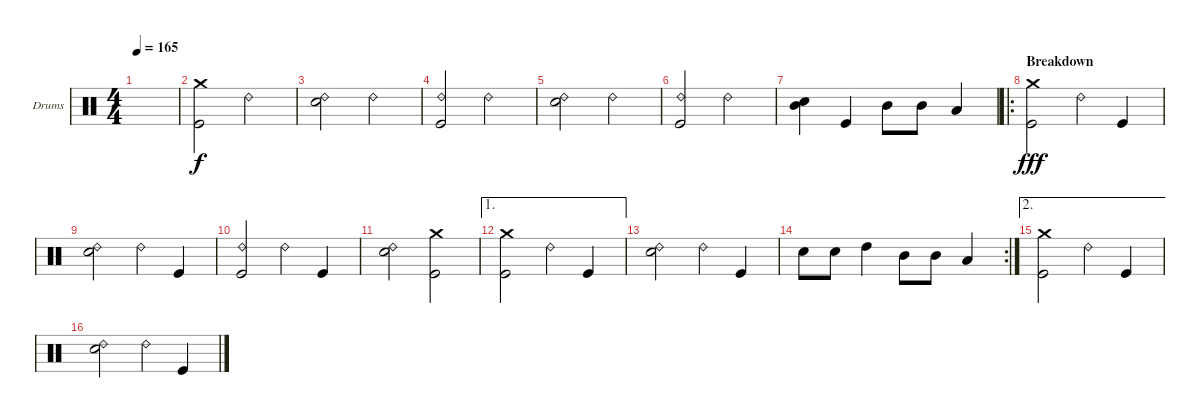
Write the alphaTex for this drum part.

\defaultSystemsLayout 4
\bracketExtendMode groupsimilarinstruments
\firstSystemTrackNameOrientation horizontal
\otherSystemsTrackNameOrientation horizontal
\track ("Drums" "Drums") {instrument percussion}
\staff {score}
\articulation defaults
\ts (4 4)
\tempo 165
\clef neutral
\ks c
|
("Crash medium (hit)" "Kick (hit)").2{dy f} "Ride (bell) 2".2 |
("Ride (bell) 2" "Snare (hit) 2").2 "Ride (bell) 2".2 |
("Ride (bell) 2" "Kick (hit)").2 "Ride (bell) 2".2 |
("Ride (bell) 2" "Snare (hit) 2").2 "Ride (bell) 2".2 |
("Ride (bell) 2" "Kick (hit)").2 "Ride (bell) 2".2 |
("Snare (hit) 2" "Mid Tom (hit)").4 "Kick (hit)".4 "Mid Tom (hit)".8 "Mid Tom (hit)".8 "Low Tom (hit)".4 |
\ro
\section ("" "Breakdown")
("Crash medium (hit)" "Kick (hit)").2{dy fff} "Ride (bell) 2".4 "Kick (hit)".4 |
("Ride (bell) 2" "Snare (hit) 2").2 "Ride (bell) 2".4 "Kick (hit)".4 |
("Kick (hit)" "Ride (bell) 2").2 "Ride (bell) 2".4 "Kick (hit)".4 |
("Ride (bell) 2" "Snare (hit) 2").2 ("Crash medium (hit)" "Kick (hit)").2 |
\ae 1
("Crash medium (hit)" "Kick (hit)").2 "Ride (bell) 2".4 "Kick (hit)".4 |
("Ride (bell) 2" "Snare (hit) 2").2 "Ride (bell) 2".4 "Kick (hit)".4 |
\rc 2 "Snare (hit) 2".8 "Snare (hit) 2".8 "High Tom (hit)".4 "Mid Tom (hit)".8 "Mid Tom (hit)".8 "Low Tom (hit)".4
|
\ae 2
("Crash medium (hit)" "Kick (hit)").2 "Ride (bell) 2".4 "Kick (hit)".4 |
("Ride (bell) 2" "Snare (hit) 2").2 "Ride (bell) 2".4 "Kick (hit)".4
